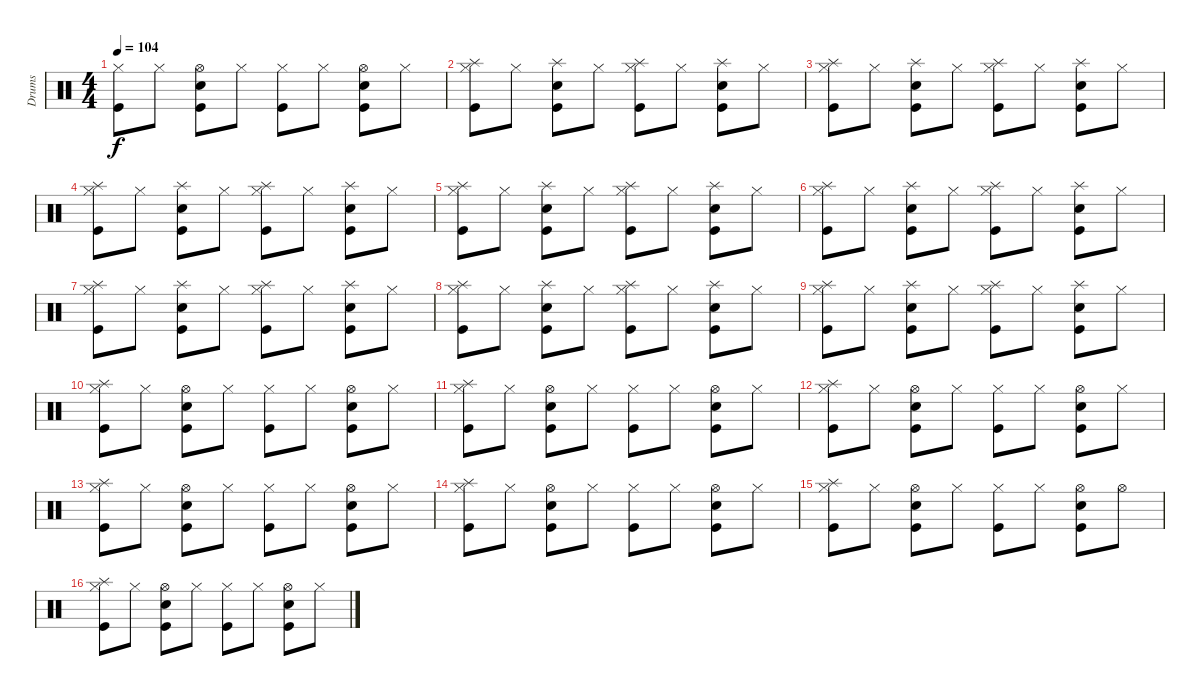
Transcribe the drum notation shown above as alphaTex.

\track ("Drums" "Drums") {instrument percussion}
\staff {score}
\articulation defaults
\ts (4 4)
\tempo 104
\clef neutral
\ks c
("Hi-Hat (closed)" "Kick (hit)").8{dy f} "Hi-Hat (closed)".8 ("Snare (hit) 2" "Hi-Hat (open)" "Kick (hit)").8 "Hi-Hat (closed)".8 ("Hi-Hat (closed)" "Kick (hit)").8 "Hi-Hat (closed)".8 ("Snare (hit) 2" "Hi-Hat (open)" "Kick (hit)").8 "Hi-Hat (closed)".8 |
("Splash (hit)" "Hi-Hat (closed)" "Kick (hit)").8 "Hi-Hat (closed)".8 ("Snare (hit) 2" "Splash (hit)" "Kick (hit)").8 "Hi-Hat (closed)".8 ("Splash (hit)" "Hi-Hat (closed)" "Kick (hit)").8 "Hi-Hat (closed)".8 ("Snare (hit) 2" "Splash (hit)" "Kick (hit)").8 "Hi-Hat (closed)".8 |
("Splash (hit)" "Hi-Hat (closed)" "Kick (hit)").8 "Hi-Hat (closed)".8 ("Snare (hit) 2" "Splash (hit)" "Kick (hit)").8 "Hi-Hat (closed)".8 ("Splash (hit)" "Hi-Hat (closed)" "Kick (hit)").8 "Hi-Hat (closed)".8 ("Snare (hit) 2" "Splash (hit)" "Kick (hit)").8 "Hi-Hat (closed)".8 |
("Splash (hit)" "Hi-Hat (closed)" "Kick (hit)").8 "Hi-Hat (closed)".8 ("Snare (hit) 2" "Splash (hit)" "Kick (hit)").8 "Hi-Hat (closed)".8 ("Splash (hit)" "Hi-Hat (closed)" "Kick (hit)").8 "Hi-Hat (closed)".8 ("Snare (hit) 2" "Splash (hit)" "Kick (hit)").8 "Hi-Hat (closed)".8 |
("Splash (hit)" "Hi-Hat (closed)" "Kick (hit)").8 "Hi-Hat (closed)".8 ("Snare (hit) 2" "Splash (hit)" "Kick (hit)").8 "Hi-Hat (closed)".8 ("Splash (hit)" "Hi-Hat (closed)" "Kick (hit)").8 "Hi-Hat (closed)".8 ("Snare (hit) 2" "Splash (hit)" "Kick (hit)").8 "Hi-Hat (closed)".8 |
("Splash (hit)" "Hi-Hat (closed)" "Kick (hit)").8 "Hi-Hat (closed)".8 ("Snare (hit) 2" "Splash (hit)" "Kick (hit)").8 "Hi-Hat (closed)".8 ("Splash (hit)" "Hi-Hat (closed)" "Kick (hit)").8 "Hi-Hat (closed)".8 ("Snare (hit) 2" "Splash (hit)" "Kick (hit)").8 "Hi-Hat (closed)".8 |
("Splash (hit)" "Hi-Hat (closed)" "Kick (hit)").8 "Hi-Hat (closed)".8 ("Snare (hit) 2" "Splash (hit)" "Kick (hit)").8 "Hi-Hat (closed)".8 ("Splash (hit)" "Hi-Hat (closed)" "Kick (hit)").8 "Hi-Hat (closed)".8 ("Snare (hit) 2" "Splash (hit)" "Kick (hit)").8 "Hi-Hat (closed)".8 |
("Splash (hit)" "Hi-Hat (closed)" "Kick (hit)").8 "Hi-Hat (closed)".8 ("Snare (hit) 2" "Splash (hit)" "Kick (hit)").8 "Hi-Hat (closed)".8 ("Splash (hit)" "Hi-Hat (closed)" "Kick (hit)").8 "Hi-Hat (closed)".8 ("Snare (hit) 2" "Splash (hit)" "Kick (hit)").8 "Hi-Hat (closed)".8 |
("Splash (hit)" "Hi-Hat (closed)" "Kick (hit)").8 "Hi-Hat (closed)".8 ("Snare (hit) 2" "Splash (hit)" "Kick (hit)").8 "Hi-Hat (closed)".8 ("Splash (hit)" "Hi-Hat (closed)" "Kick (hit)").8 "Hi-Hat (closed)".8 ("Snare (hit) 2" "Splash (hit)" "Kick (hit)").8 "Hi-Hat (closed)".8 |
("Splash (hit)" "Hi-Hat (closed)" "Kick (hit)").8 "Hi-Hat (closed)".8 ("Snare (hit) 2" "Hi-Hat (open)" "Kick (hit)").8 "Hi-Hat (closed)".8 ("Hi-Hat (closed)" "Kick (hit)").8 "Hi-Hat (closed)".8 ("Snare (hit) 2" "Hi-Hat (open)" "Kick (hit)").8 "Hi-Hat (closed)".8 |
("Splash (hit)" "Hi-Hat (closed)" "Kick (hit)").8 "Hi-Hat (closed)".8 ("Snare (hit) 2" "Hi-Hat (open)" "Kick (hit)").8 "Hi-Hat (closed)".8 ("Hi-Hat (closed)" "Kick (hit)").8 "Hi-Hat (closed)".8 ("Snare (hit) 2" "Hi-Hat (open)" "Kick (hit)").8 "Hi-Hat (closed)".8 |
("Splash (hit)" "Hi-Hat (closed)" "Kick (hit)").8 "Hi-Hat (closed)".8 ("Snare (hit) 2" "Hi-Hat (open)" "Kick (hit)").8 "Hi-Hat (closed)".8 ("Hi-Hat (closed)" "Kick (hit)").8 "Hi-Hat (closed)".8 ("Snare (hit) 2" "Hi-Hat (open)" "Kick (hit)").8 "Hi-Hat (closed)".8 |
("Splash (hit)" "Hi-Hat (closed)" "Kick (hit)").8 "Hi-Hat (closed)".8 ("Snare (hit) 2" "Hi-Hat (open)" "Kick (hit)").8 "Hi-Hat (closed)".8 ("Hi-Hat (closed)" "Kick (hit)").8 "Hi-Hat (closed)".8 ("Snare (hit) 2" "Hi-Hat (open)" "Kick (hit)").8 "Hi-Hat (closed)".8 |
("Splash (hit)" "Hi-Hat (closed)" "Kick (hit)").8 "Hi-Hat (closed)".8 ("Snare (hit) 2" "Hi-Hat (open)" "Kick (hit)").8 "Hi-Hat (closed)".8 ("Hi-Hat (closed)" "Kick (hit)").8 "Hi-Hat (closed)".8 ("Snare (hit) 2" "Hi-Hat (open)" "Kick (hit)").8 "Hi-Hat (closed)".8 |
("Splash (hit)" "Hi-Hat (closed)" "Kick (hit)").8 "Hi-Hat (closed)".8 ("Snare (hit) 2" "Hi-Hat (open)" "Kick (hit)").8 "Hi-Hat (closed)".8 ("Hi-Hat (closed)" "Kick (hit)").8 "Hi-Hat (closed)".8 ("Snare (hit) 2" "Hi-Hat (open)" "Kick (hit)").8 "Hi-Hat (open)".8 |
("Splash (hit)" "Hi-Hat (closed)" "Kick (hit)").8 "Hi-Hat (closed)".8 ("Snare (hit) 2" "Hi-Hat (open)" "Kick (hit)").8 "Hi-Hat (closed)".8 ("Hi-Hat (closed)" "Kick (hit)").8 "Hi-Hat (closed)".8 ("Snare (hit) 2" "Hi-Hat (open)" "Kick (hit)").8 "Hi-Hat (closed)".8
